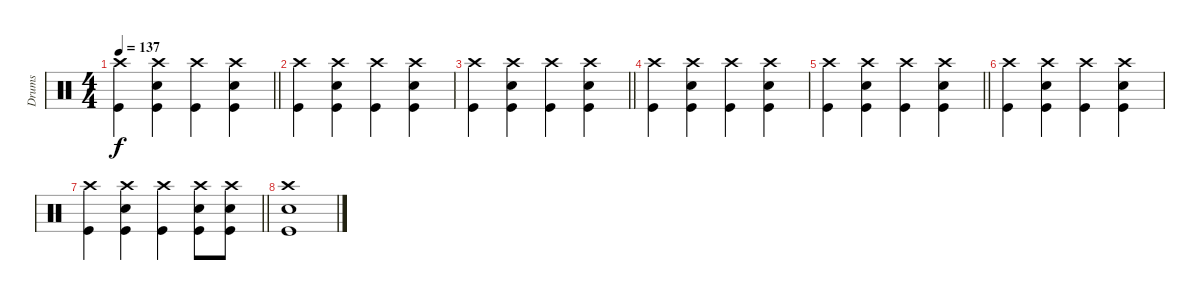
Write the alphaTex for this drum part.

\track ("Drums" "Drums") {instrument percussion}
\staff {score}
\articulation defaults
\ts (4 4)
\tempo 137
\clef neutral
\barLineRight lightlight
\ks c
("Crash high (hit)" "Kick (hit)").4{dy f} ("Crash high (hit)" "Snare (hit) 2" "Kick (hit)").4 ("Crash high (hit)" "Kick (hit)").4 ("Crash high (hit)" "Snare (hit) 2" "Kick (hit)").4 |
("Crash high (hit)" "Kick (hit)").4 ("Crash high (hit)" "Snare (hit) 2" "Kick (hit)").4 ("Crash high (hit)" "Kick (hit)").4 ("Crash high (hit)" "Snare (hit) 2" "Kick (hit)").4 |
\barLineRight lightlight
("Crash high (hit)" "Kick (hit)").4 ("Crash high (hit)" "Snare (hit) 2" "Kick (hit)").4 ("Crash high (hit)" "Kick (hit)").4 ("Crash high (hit)" "Snare (hit) 2" "Kick (hit)").4 |
("Crash high (hit)" "Kick (hit)").4 ("Crash high (hit)" "Snare (hit) 2" "Kick (hit)").4 ("Crash high (hit)" "Kick (hit)").4 ("Crash high (hit)" "Snare (hit) 2" "Kick (hit)").4 |
\barLineRight lightlight
("Crash high (hit)" "Kick (hit)").4 ("Crash high (hit)" "Snare (hit) 2" "Kick (hit)").4 ("Crash high (hit)" "Kick (hit)").4 ("Crash high (hit)" "Snare (hit) 2" "Kick (hit)").4 |
("Crash high (hit)" "Kick (hit)").4 ("Crash high (hit)" "Snare (hit) 2" "Kick (hit)").4 ("Crash high (hit)" "Kick (hit)").4 ("Crash high (hit)" "Snare (hit) 2" "Kick (hit)").4 |
\barLineRight lightlight
("Crash high (hit)" "Kick (hit)").4 ("Crash high (hit)" "Snare (hit) 2" "Kick (hit)").4 ("Crash high (hit)" "Kick (hit)").4 ("Crash high (hit)" "Snare (hit) 2" "Kick (hit)").8 ("Crash high (hit)" "Snare (hit) 2" "Kick (hit)").8 |
("Crash high (hit)" "Snare (hit) 2" "Kick (hit)").1
